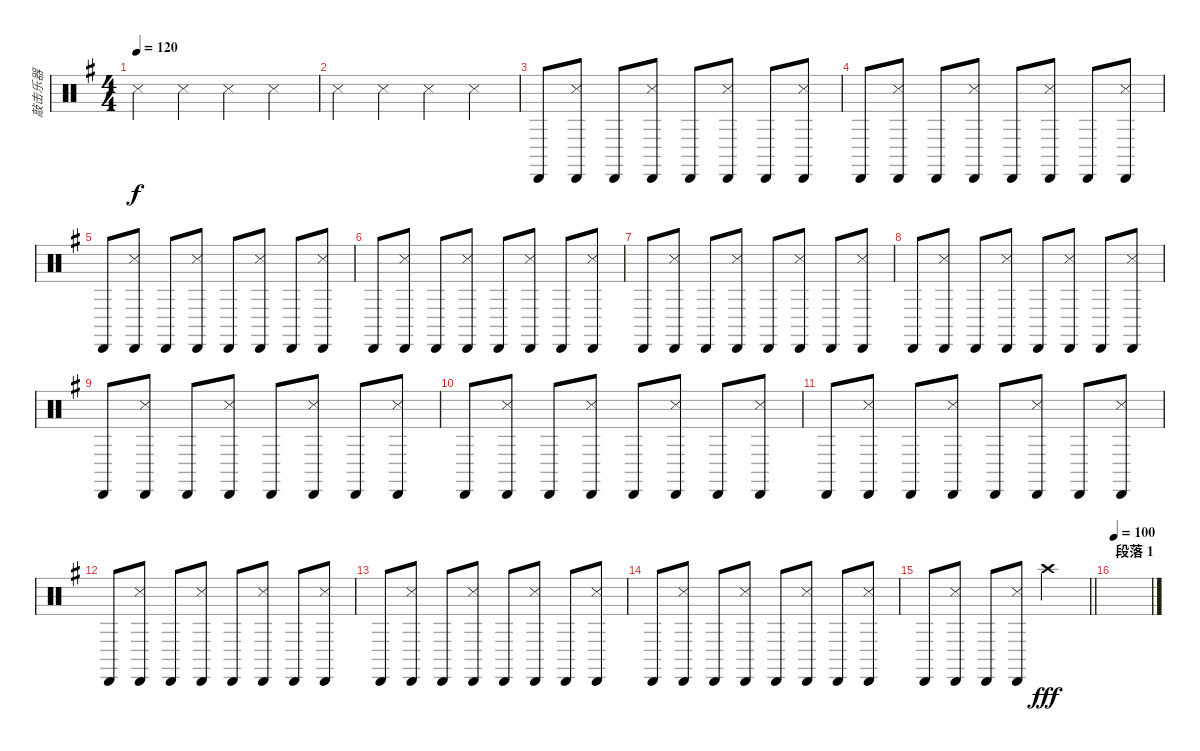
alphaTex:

\track ("敲击乐器" "敲击乐器") {instrument percussion}
\staff {score}
\articulation defaults
\ts (4 4)
\tempo 120
\clef neutral
\ks g "Snare (side stick) 3".4{dy f} "Snare (side stick) 3".4 "Snare (side stick) 3".4 "Snare (side stick) 3".4
|
"Snare (side stick) 3".4 "Snare (side stick) 3".4 "Snare (side stick) 3".4 "Snare (side stick) 3".4 |
"Cabasa (hit)".8 ("Snare (side stick) 3" "Cabasa (hit)").8 "Cabasa (hit)".8 ("Snare (side stick) 3" "Cabasa (hit)").8 "Cabasa (hit)".8 ("Snare (side stick) 3" "Cabasa (hit)").8 "Cabasa (hit)".8 ("Snare (side stick) 3" "Cabasa (hit)").8 |
"Cabasa (hit)".8 ("Snare (side stick) 3" "Cabasa (hit)").8 "Cabasa (hit)".8 ("Snare (side stick) 3" "Cabasa (hit)").8 "Cabasa (hit)".8 ("Snare (side stick) 3" "Cabasa (hit)").8 "Cabasa (hit)".8 ("Snare (side stick) 3" "Cabasa (hit)").8 |
"Cabasa (hit)".8 ("Snare (side stick) 3" "Cabasa (hit)").8 "Cabasa (hit)".8 ("Snare (side stick) 3" "Cabasa (hit)").8 "Cabasa (hit)".8 ("Snare (side stick) 3" "Cabasa (hit)").8 "Cabasa (hit)".8 ("Snare (side stick) 3" "Cabasa (hit)").8 |
"Cabasa (hit)".8 ("Snare (side stick) 3" "Cabasa (hit)").8 "Cabasa (hit)".8 ("Snare (side stick) 3" "Cabasa (hit)").8 "Cabasa (hit)".8 ("Snare (side stick) 3" "Cabasa (hit)").8 "Cabasa (hit)".8 ("Snare (side stick) 3" "Cabasa (hit)").8 |
"Cabasa (hit)".8 ("Snare (side stick) 3" "Cabasa (hit)").8 "Cabasa (hit)".8 ("Snare (side stick) 3" "Cabasa (hit)").8 "Cabasa (hit)".8 ("Snare (side stick) 3" "Cabasa (hit)").8 "Cabasa (hit)".8 ("Snare (side stick) 3" "Cabasa (hit)").8 |
"Cabasa (hit)".8 ("Snare (side stick) 3" "Cabasa (hit)").8 "Cabasa (hit)".8 ("Snare (side stick) 3" "Cabasa (hit)").8 "Cabasa (hit)".8 ("Snare (side stick) 3" "Cabasa (hit)").8 "Cabasa (hit)".8 ("Snare (side stick) 3" "Cabasa (hit)").8 |
"Cabasa (hit)".8 ("Snare (side stick) 3" "Cabasa (hit)").8 "Cabasa (hit)".8 ("Snare (side stick) 3" "Cabasa (hit)").8 "Cabasa (hit)".8 ("Snare (side stick) 3" "Cabasa (hit)").8 "Cabasa (hit)".8 ("Snare (side stick) 3" "Cabasa (hit)").8 |
"Cabasa (hit)".8 ("Snare (side stick) 3" "Cabasa (hit)").8 "Cabasa (hit)".8 ("Snare (side stick) 3" "Cabasa (hit)").8 "Cabasa (hit)".8 ("Snare (side stick) 3" "Cabasa (hit)").8 "Cabasa (hit)".8 ("Snare (side stick) 3" "Cabasa (hit)").8 |
"Cabasa (hit)".8 ("Snare (side stick) 3" "Cabasa (hit)").8 "Cabasa (hit)".8 ("Snare (side stick) 3" "Cabasa (hit)").8 "Cabasa (hit)".8 ("Snare (side stick) 3" "Cabasa (hit)").8 "Cabasa (hit)".8 ("Snare (side stick) 3" "Cabasa (hit)").8 |
"Cabasa (hit)".8 ("Snare (side stick) 3" "Cabasa (hit)").8 "Cabasa (hit)".8 ("Snare (side stick) 3" "Cabasa (hit)").8 "Cabasa (hit)".8 ("Snare (side stick) 3" "Cabasa (hit)").8 "Cabasa (hit)".8 ("Snare (side stick) 3" "Cabasa (hit)").8 |
"Cabasa (hit)".8 ("Snare (side stick) 3" "Cabasa (hit)").8 "Cabasa (hit)".8 ("Snare (side stick) 3" "Cabasa (hit)").8 "Cabasa (hit)".8 ("Snare (side stick) 3" "Cabasa (hit)").8 "Cabasa (hit)".8 ("Snare (side stick) 3" "Cabasa (hit)").8 |
"Cabasa (hit)".8 ("Snare (side stick) 3" "Cabasa (hit)").8 "Cabasa (hit)".8 ("Snare (side stick) 3" "Cabasa (hit)").8 "Cabasa (hit)".8 ("Snare (side stick) 3" "Cabasa (hit)").8 "Cabasa (hit)".8 ("Snare (side stick) 3" "Cabasa (hit)").8 |
\barLineRight lightlight "Cabasa (hit)".8
("Snare (side stick) 3" "Cabasa (hit)").8 "Cabasa (hit)".8 ("Snare (side stick) 3" "Cabasa (hit)").8 "Crash high (hit)".2{dy fff} |
\section ("" "段落 1")
\tempo 100
